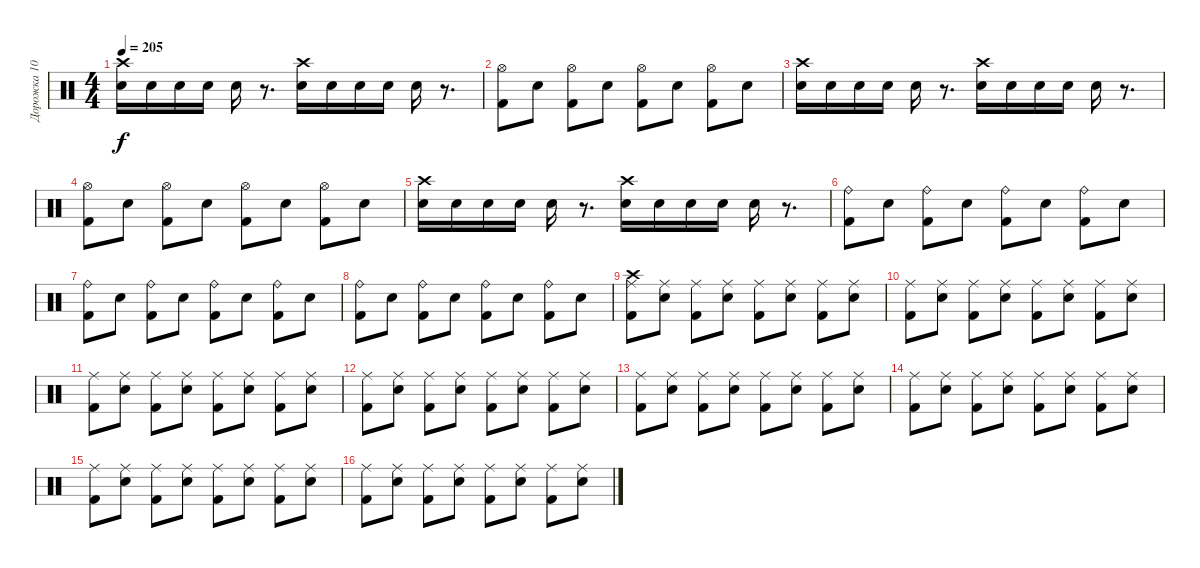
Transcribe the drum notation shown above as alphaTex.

\track ("Дорожка 10" "Дорожка 10") {instrument percussion}
\staff {score}
\articulation defaults
\ts (4 4)
\tempo 205
\clef neutral
\ks c
("Crash high (hit)" "Snare (hit) 2").16{dy f} "Snare (hit) 2".16 "Snare (hit) 2".16 "Snare (hit) 2".16 "Snare (hit) 2".16 r.8{d} ("Crash high (hit)" "Snare (hit) 2").16 "Snare (hit) 2".16 "Snare (hit) 2".16 "Snare (hit) 2".16 "Snare (hit) 2".16 r.8{d} |
("Hi-Hat (open)" "Kick (hit) 2").8 "Snare (hit) 2".8 ("Hi-Hat (open)" "Kick (hit) 2").8 "Snare (hit) 2".8 ("Hi-Hat (open)" "Kick (hit) 2").8 "Snare (hit) 2".8 ("Hi-Hat (open)" "Kick (hit) 2").8 "Snare (hit) 2".8 |
("Crash high (hit)" "Snare (hit) 2").16 "Snare (hit) 2".16 "Snare (hit) 2".16 "Snare (hit) 2".16 "Snare (hit) 2".16 r.8{d} ("Crash high (hit)" "Snare (hit) 2").16 "Snare (hit) 2".16 "Snare (hit) 2".16 "Snare (hit) 2".16 "Snare (hit) 2".16 r.8{d} |
("Hi-Hat (open)" "Kick (hit) 2").8 "Snare (hit) 2".8 ("Hi-Hat (open)" "Kick (hit) 2").8 "Snare (hit) 2".8 ("Hi-Hat (open)" "Kick (hit) 2").8 "Snare (hit) 2".8 ("Hi-Hat (open)" "Kick (hit) 2").8 "Snare (hit) 2".8 |
("Crash high (hit)" "Snare (hit) 2").16 "Snare (hit) 2".16 "Snare (hit) 2".16 "Snare (hit) 2".16 "Snare (hit) 2".16 r.8{d} ("Crash high (hit)" "Snare (hit) 2").16 "Snare (hit) 2".16 "Snare (hit) 2".16 "Snare (hit) 2".16 "Snare (hit) 2".16 r.8{d} |
("Ride (bell)" "Kick (hit) 2").8 "Snare (hit) 2".8 ("Ride (bell)" "Kick (hit) 2").8 "Snare (hit) 2".8 ("Ride (bell)" "Kick (hit) 2").8 "Snare (hit) 2".8 ("Ride (bell)" "Kick (hit) 2").8 "Snare (hit) 2".8 |
("Ride (bell)" "Kick (hit) 2").8 "Snare (hit) 2".8 ("Ride (bell)" "Kick (hit) 2").8 "Snare (hit) 2".8 ("Ride (bell)" "Kick (hit) 2").8 "Snare (hit) 2".8 ("Ride (bell)" "Kick (hit) 2").8 "Snare (hit) 2".8 |
("Ride (bell)" "Kick (hit) 2").8 "Snare (hit) 2".8 ("Ride (bell)" "Kick (hit) 2").8 "Snare (hit) 2".8 ("Ride (bell)" "Kick (hit) 2").8 "Snare (hit) 2".8 ("Ride (bell)" "Kick (hit) 2").8 "Snare (hit) 2".8 |
("Crash high (hit)" "Ride (middle)" "Kick (hit) 2").8 ("Ride (middle)" "Snare (hit) 2").8 ("Ride (middle)" "Kick (hit) 2").8 ("Ride (middle)" "Snare (hit) 2").8 ("Ride (middle)" "Kick (hit) 2").8 ("Ride (middle)" "Snare (hit) 2").8 ("Ride (middle)" "Kick (hit) 2").8 ("Ride (middle)" "Snare (hit) 2").8 |
("Ride (middle)" "Kick (hit) 2").8 ("Ride (middle)" "Snare (hit) 2").8 ("Ride (middle)" "Kick (hit) 2").8 ("Ride (middle)" "Snare (hit) 2").8 ("Ride (middle)" "Kick (hit) 2").8 ("Ride (middle)" "Snare (hit) 2").8 ("Ride (middle)" "Kick (hit) 2").8 ("Ride (middle)" "Snare (hit) 2").8 |
("Ride (middle)" "Kick (hit) 2").8 ("Ride (middle)" "Snare (hit) 2").8 ("Ride (middle)" "Kick (hit) 2").8 ("Ride (middle)" "Snare (hit) 2").8 ("Ride (middle)" "Kick (hit) 2").8 ("Ride (middle)" "Snare (hit) 2").8 ("Ride (middle)" "Kick (hit) 2").8 ("Ride (middle)" "Snare (hit) 2").8 |
("Ride (middle)" "Kick (hit) 2").8 ("Ride (middle)" "Snare (hit) 2").8 ("Ride (middle)" "Kick (hit) 2").8 ("Ride (middle)" "Snare (hit) 2").8 ("Ride (middle)" "Kick (hit) 2").8 ("Ride (middle)" "Snare (hit) 2").8 ("Ride (middle)" "Kick (hit) 2").8 ("Ride (middle)" "Snare (hit) 2").8 |
("Ride (middle)" "Kick (hit) 2").8 ("Ride (middle)" "Snare (hit) 2").8 ("Ride (middle)" "Kick (hit) 2").8 ("Ride (middle)" "Snare (hit) 2").8 ("Ride (middle)" "Kick (hit) 2").8 ("Ride (middle)" "Snare (hit) 2").8 ("Ride (middle)" "Kick (hit) 2").8 ("Ride (middle)" "Snare (hit) 2").8 |
("Ride (middle)" "Kick (hit) 2").8 ("Ride (middle)" "Snare (hit) 2").8 ("Ride (middle)" "Kick (hit) 2").8 ("Ride (middle)" "Snare (hit) 2").8 ("Ride (middle)" "Kick (hit) 2").8 ("Ride (middle)" "Snare (hit) 2").8 ("Ride (middle)" "Kick (hit) 2").8 ("Ride (middle)" "Snare (hit) 2").8 |
("Ride (middle)" "Kick (hit) 2").8 ("Ride (middle)" "Snare (hit) 2").8 ("Ride (middle)" "Kick (hit) 2").8 ("Ride (middle)" "Snare (hit) 2").8 ("Ride (middle)" "Kick (hit) 2").8 ("Ride (middle)" "Snare (hit) 2").8 ("Ride (middle)" "Kick (hit) 2").8 ("Ride (middle)" "Snare (hit) 2").8 |
("Ride (middle)" "Kick (hit) 2").8 ("Ride (middle)" "Snare (hit) 2").8 ("Ride (middle)" "Kick (hit) 2").8 ("Ride (middle)" "Snare (hit) 2").8 ("Ride (middle)" "Kick (hit) 2").8 ("Ride (middle)" "Snare (hit) 2").8 ("Ride (middle)" "Kick (hit) 2").8 ("Ride (middle)" "Snare (hit) 2").8
